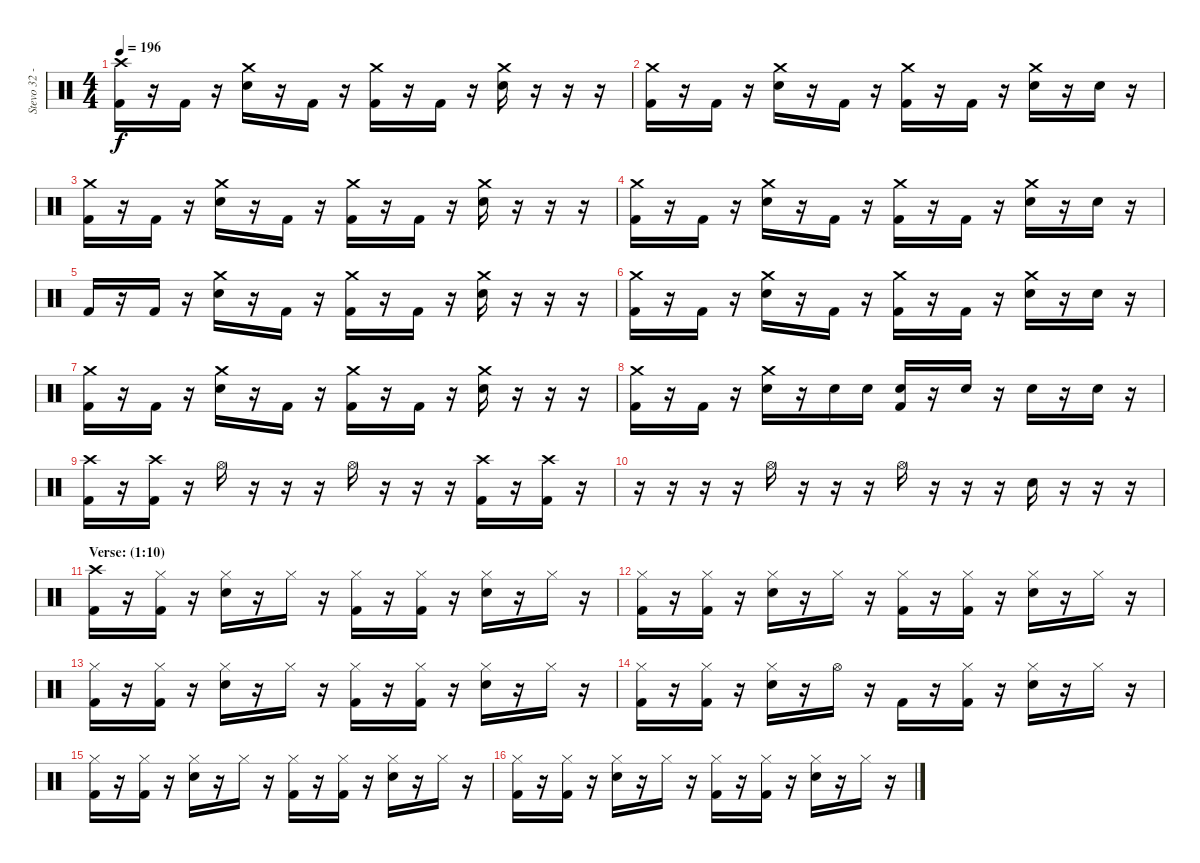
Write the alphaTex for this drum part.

\track ("Stevo 32 - Drums" "Stevo 32 -") {instrument percussion}
\staff {score}
\articulation defaults
\ts (4 4)
\tempo 196
\clef neutral
\ks c
("Crash high (hit)" "Kick (hit) 2").16{dy f} r.16 "Kick (hit) 2".16 r.16 ("Crash medium (hit)" "Snare (hit) 2").16 r.16 "Kick (hit) 2".16 r.16 ("Crash medium (hit)" "Kick (hit) 2").16 r.16 "Kick (hit) 2".16 r.16 ("Crash medium (hit)" "Snare (hit) 2").16 r.16 r.16 r.16 |
("Crash medium (hit)" "Kick (hit) 2").16 r.16 "Kick (hit) 2".16 r.16 ("Crash medium (hit)" "Snare (hit) 2").16 r.16 "Kick (hit) 2".16 r.16 ("Crash medium (hit)" "Kick (hit) 2").16 r.16 "Kick (hit) 2".16 r.16 ("Crash medium (hit)" "Snare (hit) 2").16 r.16 "Snare (hit) 2".16 r.16 |
("Crash medium (hit)" "Kick (hit) 2").16 r.16 "Kick (hit) 2".16 r.16 ("Crash medium (hit)" "Snare (hit) 2").16 r.16 "Kick (hit) 2".16 r.16 ("Crash medium (hit)" "Kick (hit) 2").16 r.16 "Kick (hit) 2".16 r.16 ("Crash medium (hit)" "Snare (hit) 2").16 r.16 r.16 r.16 |
("Crash medium (hit)" "Kick (hit) 2").16 r.16 "Kick (hit) 2".16 r.16 ("Crash medium (hit)" "Snare (hit) 2").16 r.16 "Kick (hit) 2".16 r.16 ("Crash medium (hit)" "Kick (hit) 2").16 r.16 "Kick (hit) 2".16 r.16 ("Crash medium (hit)" "Snare (hit) 2").16 r.16 "Snare (hit) 2".16 r.16 |
"Kick (hit) 2".16 r.16 "Kick (hit) 2".16 r.16 ("Crash medium (hit)" "Snare (hit) 2").16 r.16 "Kick (hit) 2".16 r.16 ("Crash medium (hit)" "Kick (hit) 2").16 r.16 "Kick (hit) 2".16 r.16 ("Crash medium (hit)" "Snare (hit) 2").16 r.16 r.16 r.16 |
("Crash medium (hit)" "Kick (hit) 2").16 r.16 "Kick (hit) 2".16 r.16 ("Crash medium (hit)" "Snare (hit) 2").16 r.16 "Kick (hit) 2".16 r.16 ("Crash medium (hit)" "Kick (hit) 2").16 r.16 "Kick (hit) 2".16 r.16 ("Crash medium (hit)" "Snare (hit) 2").16 r.16 "Snare (hit) 2".16 r.16 |
("Crash medium (hit)" "Kick (hit) 2").16 r.16 "Kick (hit) 2".16 r.16 ("Crash medium (hit)" "Snare (hit) 2").16 r.16 "Kick (hit) 2".16 r.16 ("Crash medium (hit)" "Kick (hit) 2").16 r.16 "Kick (hit) 2".16 r.16 ("Crash medium (hit)" "Snare (hit) 2").16 r.16 r.16 r.16 |
("Crash medium (hit)" "Kick (hit) 2").16 r.16 "Kick (hit) 2".16 r.16 ("Crash medium (hit)" "Snare (hit) 2").16 r.16 "Snare (hit) 2".16 "Snare (hit) 2".16 ("Snare (hit) 2" "Kick (hit) 2").16 r.16 "Snare (hit) 2".16 r.16 "Snare (hit) 2".16 r.16 "Snare (hit) 2".16 r.16 |
("Crash high (hit)" "Kick (hit) 2").16 r.16 ("Crash high (hit)" "Kick (hit) 2").16 r.16 "Hi-Hat (open)".16 r.16 r.16 r.16 "Hi-Hat (open)".16 r.16 r.16 r.16 ("Crash high (hit)" "Kick (hit) 2").16 r.16 ("Crash high (hit)" "Kick (hit) 2").16 r.16 |
r.16 r.16 r.16 r.16 "Hi-Hat (open)".16 r.16 r.16 r.16 "Hi-Hat (open)".16 r.16 r.16 r.16 "Snare (hit) 2".16 r.16 r.16 r.16 |
\section ("" "Verse: (1:10)")
("Crash high (hit)" "Kick (hit) 2").16 r.16 ("Hi-Hat (closed)" "Kick (hit) 2").16 r.16 ("Hi-Hat (closed)" "Snare (hit) 2").16 r.16 "Hi-Hat (closed)".16 r.16 ("Hi-Hat (closed)" "Kick (hit) 2").16 r.16 ("Hi-Hat (closed)" "Kick (hit) 2").16 r.16 ("Hi-Hat (closed)" "Snare (hit) 2").16 r.16 "Hi-Hat (closed)".16 r.16 |
("Hi-Hat (closed)" "Kick (hit) 2").16 r.16 ("Hi-Hat (closed)" "Kick (hit) 2").16 r.16 ("Hi-Hat (closed)" "Snare (hit) 2").16 r.16 "Hi-Hat (closed)".16 r.16 ("Hi-Hat (closed)" "Kick (hit) 2").16 r.16 ("Hi-Hat (closed)" "Kick (hit) 2").16 r.16 ("Hi-Hat (closed)" "Snare (hit) 2").16 r.16 "Hi-Hat (closed)".16 r.16 |
("Hi-Hat (closed)" "Kick (hit) 2").16 r.16 ("Hi-Hat (closed)" "Kick (hit) 2").16 r.16 ("Hi-Hat (closed)" "Snare (hit) 2").16 r.16 "Hi-Hat (closed)".16 r.16 ("Hi-Hat (closed)" "Kick (hit) 2").16 r.16 ("Hi-Hat (closed)" "Kick (hit) 2").16 r.16 ("Hi-Hat (closed)" "Snare (hit) 2").16 r.16 "Hi-Hat (closed)".16 r.16 |
("Hi-Hat (closed)" "Kick (hit) 2").16 r.16 ("Hi-Hat (closed)" "Kick (hit) 2").16 r.16 ("Hi-Hat (closed)" "Snare (hit) 2").16 r.16 "Hi-Hat (open)".16 r.16 "Kick (hit) 2".16 r.16 ("Hi-Hat (closed)" "Kick (hit) 2").16 r.16 ("Hi-Hat (closed)" "Snare (hit) 2").16 r.16 "Hi-Hat (closed)".16 r.16 |
("Hi-Hat (closed)" "Kick (hit) 2").16 r.16 ("Hi-Hat (closed)" "Kick (hit) 2").16 r.16 ("Hi-Hat (closed)" "Snare (hit) 2").16 r.16 "Hi-Hat (closed)".16 r.16 ("Hi-Hat (closed)" "Kick (hit) 2").16 r.16 ("Hi-Hat (closed)" "Kick (hit) 2").16 r.16 ("Hi-Hat (closed)" "Snare (hit) 2").16 r.16 "Hi-Hat (closed)".16 r.16 |
("Hi-Hat (closed)" "Kick (hit) 2").16 r.16 ("Hi-Hat (closed)" "Kick (hit) 2").16 r.16 ("Hi-Hat (closed)" "Snare (hit) 2").16 r.16 "Hi-Hat (closed)".16 r.16 ("Hi-Hat (closed)" "Kick (hit) 2").16 r.16 ("Hi-Hat (closed)" "Kick (hit) 2").16 r.16 ("Hi-Hat (closed)" "Snare (hit) 2").16 r.16 "Hi-Hat (closed)".16 r.16
